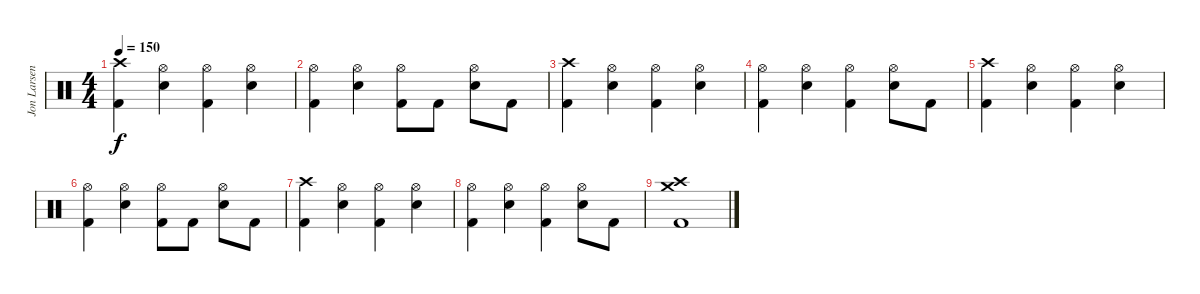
\track ("Jon Larsen" "Jon Larsen") {instrument percussion bank 10}
\staff {score}
\articulation defaults
\ts (4 4)
\tempo 150
\clef neutral
\ks c
("Crash high (hit)" "Kick (hit) 2").4{dy f} ("Hi-Hat (open)" "Electric Snare (hit)").4 ("Hi-Hat (open)" "Kick (hit) 2").4 ("Hi-Hat (open)" "Electric Snare (hit)").4 |
("Hi-Hat (open)" "Kick (hit) 2").4 ("Hi-Hat (open)" "Electric Snare (hit)").4 ("Hi-Hat (open)" "Kick (hit) 2").8 "Kick (hit) 2".8 ("Hi-Hat (open)" "Electric Snare (hit)").8 "Kick (hit) 2".8 |
("Crash high (hit)" "Kick (hit) 2").4 ("Hi-Hat (open)" "Electric Snare (hit)").4 ("Hi-Hat (open)" "Kick (hit) 2").4 ("Hi-Hat (open)" "Electric Snare (hit)").4 |
("Hi-Hat (open)" "Kick (hit) 2").4 ("Hi-Hat (open)" "Electric Snare (hit)").4 ("Hi-Hat (open)" "Kick (hit) 2").4 ("Hi-Hat (open)" "Electric Snare (hit)").8 "Kick (hit) 2".8 |
("Crash high (hit)" "Kick (hit) 2").4 ("Hi-Hat (open)" "Electric Snare (hit)").4 ("Hi-Hat (open)" "Kick (hit) 2").4 ("Hi-Hat (open)" "Electric Snare (hit)").4 |
("Hi-Hat (open)" "Kick (hit) 2").4 ("Hi-Hat (open)" "Electric Snare (hit)").4 ("Hi-Hat (open)" "Kick (hit) 2").8 "Kick (hit) 2".8 ("Hi-Hat (open)" "Electric Snare (hit)").8 "Kick (hit) 2".8 |
("Crash high (hit)" "Kick (hit) 2").4 ("Hi-Hat (open)" "Electric Snare (hit)").4 ("Hi-Hat (open)" "Kick (hit) 2").4 ("Hi-Hat (open)" "Electric Snare (hit)").4 |
("Hi-Hat (open)" "Kick (hit) 2").4 ("Hi-Hat (open)" "Electric Snare (hit)").4 ("Hi-Hat (open)" "Kick (hit) 2").4 ("Hi-Hat (open)" "Electric Snare (hit)").8 "Kick (hit) 2".8 |
("Crash high (hit)" "Crash medium (hit)" "Kick (hit) 2").1
